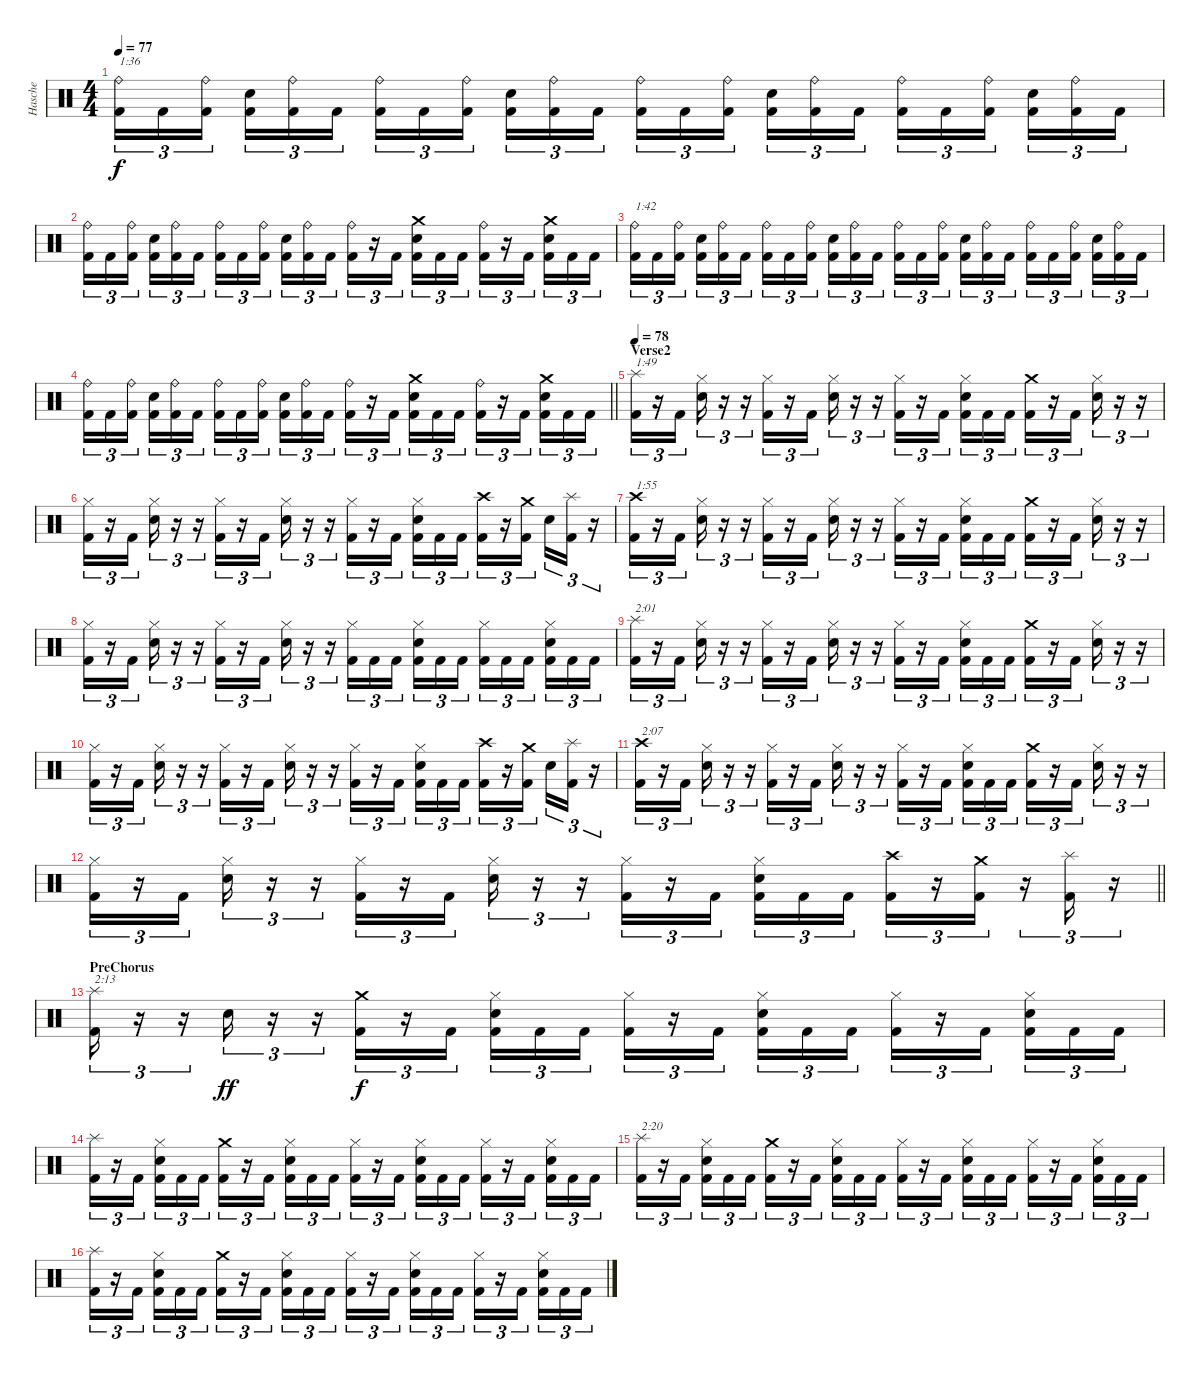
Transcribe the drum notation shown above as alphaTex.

\track ("Hasche" "Hasche") {instrument percussion}
\staff {score}
\articulation defaults
\ts (4 4)
\tempo 77
\clef neutral
\ks c
("Ride (bell)" "Kick (hit) 2").16{tu (3 2) txt "1:36" dy f} "Kick (hit) 2".16{tu (3 2)} ("Ride (bell)" "Kick (hit) 2").16{tu (3 2) beam splitsecondary} ("Snare (hit) 2" "Kick (hit) 2").16{tu (3 2)} ("Ride (bell)" "Kick (hit) 2").16{tu (3 2)} "Kick (hit) 2".16{tu (3 2)} ("Ride (bell)" "Kick (hit) 2").16{tu (3 2)} "Kick (hit) 2".16{tu (3 2)} ("Ride (bell)" "Kick (hit) 2").16{tu (3 2) beam splitsecondary} ("Snare (hit) 2" "Kick (hit) 2").16{tu (3 2)} ("Ride (bell)" "Kick (hit) 2").16{tu (3 2)} "Kick (hit) 2".16{tu (3 2)} ("Ride (bell)" "Kick (hit) 2").16{tu (3 2)} "Kick (hit) 2".16{tu (3 2)} ("Ride (bell)" "Kick (hit) 2").16{tu (3 2) beam splitsecondary} ("Snare (hit) 2" "Kick (hit) 2").16{tu (3 2)} ("Ride (bell)" "Kick (hit) 2").16{tu (3 2)} "Kick (hit) 2".16{tu (3 2)} ("Ride (bell)" "Kick (hit) 2").16{tu (3 2)} "Kick (hit) 2".16{tu (3 2)} ("Ride (bell)" "Kick (hit) 2").16{tu (3 2) beam splitsecondary} ("Snare (hit) 2" "Kick (hit) 2").16{tu (3 2)} ("Ride (bell)" "Kick (hit) 2").16{tu (3 2)} "Kick (hit) 2".16{tu (3 2)} |
("Ride (bell)" "Kick (hit) 2").16{tu (3 2)} "Kick (hit) 2".16{tu (3 2)} ("Ride (bell)" "Kick (hit) 2").16{tu (3 2) beam splitsecondary} ("Snare (hit) 2" "Kick (hit) 2").16{tu (3 2)} ("Ride (bell)" "Kick (hit) 2").16{tu (3 2)} "Kick (hit) 2".16{tu (3 2)} ("Ride (bell)" "Kick (hit) 2").16{tu (3 2)} "Kick (hit) 2".16{tu (3 2)} ("Ride (bell)" "Kick (hit) 2").16{tu (3 2) beam splitsecondary} ("Snare (hit) 2" "Kick (hit) 2").16{tu (3 2)} ("Ride (bell)" "Kick (hit) 2").16{tu (3 2)} "Kick (hit) 2".16{tu (3 2)} ("Ride (bell)" "Kick (hit) 2").16{tu (3 2)} r.16{tu (3 2)} "Kick (hit) 2".16{tu (3 2) beam splitsecondary} ("Crash medium (hit)" "Snare (hit) 2" "Kick (hit) 2").16{tu (3 2)} "Kick (hit) 2".16{tu (3 2)} "Kick (hit) 2".16{tu (3 2)} ("Ride (bell)" "Kick (hit) 2").16{tu (3 2)} r.16{tu (3 2)} "Kick (hit) 2".16{tu (3 2) beam splitsecondary} ("Crash medium (hit)" "Snare (hit) 2" "Kick (hit) 2").16{tu (3 2)} "Kick (hit) 2".16{tu (3 2)} "Kick (hit) 2".16{tu (3 2)} |
("Ride (bell)" "Kick (hit) 2").16{tu (3 2) txt "1:42"} "Kick (hit) 2".16{tu (3 2)} ("Ride (bell)" "Kick (hit) 2").16{tu (3 2) beam splitsecondary} ("Snare (hit) 2" "Kick (hit) 2").16{tu (3 2)} ("Ride (bell)" "Kick (hit) 2").16{tu (3 2)} "Kick (hit) 2".16{tu (3 2)} ("Ride (bell)" "Kick (hit) 2").16{tu (3 2)} "Kick (hit) 2".16{tu (3 2)} ("Ride (bell)" "Kick (hit) 2").16{tu (3 2) beam splitsecondary} ("Snare (hit) 2" "Kick (hit) 2").16{tu (3 2)} ("Ride (bell)" "Kick (hit) 2").16{tu (3 2)} "Kick (hit) 2".16{tu (3 2)} ("Ride (bell)" "Kick (hit) 2").16{tu (3 2)} "Kick (hit) 2".16{tu (3 2)} ("Ride (bell)" "Kick (hit) 2").16{tu (3 2) beam splitsecondary} ("Snare (hit) 2" "Kick (hit) 2").16{tu (3 2)} ("Ride (bell)" "Kick (hit) 2").16{tu (3 2)} "Kick (hit) 2".16{tu (3 2)} ("Ride (bell)" "Kick (hit) 2").16{tu (3 2)} "Kick (hit) 2".16{tu (3 2)} ("Ride (bell)" "Kick (hit) 2").16{tu (3 2) beam splitsecondary} ("Snare (hit) 2" "Kick (hit) 2").16{tu (3 2)} ("Ride (bell)" "Kick (hit) 2").16{tu (3 2)} "Kick (hit) 2".16{tu (3 2)} |
\barLineRight lightlight
("Ride (bell)" "Kick (hit) 2").16{tu (3 2)} "Kick (hit) 2".16{tu (3 2)} ("Ride (bell)" "Kick (hit) 2").16{tu (3 2) beam splitsecondary} ("Snare (hit) 2" "Kick (hit) 2").16{tu (3 2)} ("Ride (bell)" "Kick (hit) 2").16{tu (3 2)} "Kick (hit) 2".16{tu (3 2)} ("Ride (bell)" "Kick (hit) 2").16{tu (3 2)} "Kick (hit) 2".16{tu (3 2)} ("Ride (bell)" "Kick (hit) 2").16{tu (3 2) beam splitsecondary} ("Snare (hit) 2" "Kick (hit) 2").16{tu (3 2)} ("Ride (bell)" "Kick (hit) 2").16{tu (3 2)} "Kick (hit) 2".16{tu (3 2)} ("Ride (bell)" "Kick (hit) 2").16{tu (3 2)} r.16{tu (3 2)} "Kick (hit) 2".16{tu (3 2) beam splitsecondary} ("Crash medium (hit)" "Snare (hit) 2" "Kick (hit) 2").16{tu (3 2)} "Kick (hit) 2".16{tu (3 2)} "Kick (hit) 2".16{tu (3 2)} ("Ride (bell)" "Kick (hit) 2").16{tu (3 2)} r.16{tu (3 2)} "Kick (hit) 2".16{tu (3 2) beam splitsecondary} ("Crash medium (hit)" "Snare (hit) 2" "Kick (hit) 2").16{tu (3 2)} "Kick (hit) 2".16{tu (3 2)} "Kick (hit) 2".16{tu (3 2)} |
\section ("" "Verse2")
\tempo 78
("Splash (hit)" "Kick (hit) 2").16{tu (3 2) txt "1:49"} r.16{tu (3 2)} "Kick (hit) 2".16{tu (3 2)} ("Hi-Hat (closed)" "Snare (hit) 2").16{tu (3 2)} r.16{tu (3 2)} r.16{tu (3 2)} ("Hi-Hat (closed)" "Kick (hit) 2").16{tu (3 2)} r.16{tu (3 2)} "Kick (hit) 2".16{tu (3 2)} ("Hi-Hat (closed)" "Snare (hit) 2").16{tu (3 2)} r.16{tu (3 2)} r.16{tu (3 2)} ("Hi-Hat (closed)" "Kick (hit) 2").16{tu (3 2)} r.16{tu (3 2)} "Kick (hit) 2".16{tu (3 2) beam splitsecondary} ("Hi-Hat (closed)" "Snare (hit) 2" "Kick (hit) 2").16{tu (3 2)} "Kick (hit) 2".16{tu (3 2)} "Kick (hit) 2".16{tu (3 2)} ("Crash medium (hit)" "Kick (hit) 2").16{tu (3 2)} r.16{tu (3 2)} "Kick (hit) 2".16{tu (3 2)} ("Hi-Hat (closed)" "Snare (hit) 2").16{tu (3 2)} r.16{tu (3 2)} r.16{tu (3 2)} |
("Hi-Hat (closed)" "Kick (hit) 2").16{tu (3 2)} r.16{tu (3 2)} "Kick (hit) 2".16{tu (3 2)} ("Hi-Hat (closed)" "Snare (hit) 2").16{tu (3 2)} r.16{tu (3 2)} r.16{tu (3 2)} ("Hi-Hat (closed)" "Kick (hit) 2").16{tu (3 2)} r.16{tu (3 2)} "Kick (hit) 2".16{tu (3 2)} ("Hi-Hat (closed)" "Snare (hit) 2").16{tu (3 2)} r.16{tu (3 2)} r.16{tu (3 2)} ("Hi-Hat (closed)" "Kick (hit) 2").16{tu (3 2)} r.16{tu (3 2)} "Kick (hit) 2".16{tu (3 2) beam splitsecondary} ("Hi-Hat (closed)" "Snare (hit) 2" "Kick (hit) 2").16{tu (3 2)} "Kick (hit) 2".16{tu (3 2)} "Kick (hit) 2".16{tu (3 2)} ("Crash high (hit)" "Kick (hit) 2").16{tu (3 2)} r.16{tu (3 2)} ("Crash medium (hit)" "Kick (hit) 2").16{tu (3 2) beam splitsecondary} "Snare (hit) 2".16{tu (3 2)} ("Splash (hit)" "Kick (hit) 2").16{tu (3 2)} r.16{tu (3 2)} |
("Crash high (hit)" "Kick (hit) 2").16{tu (3 2) txt "1:55"} r.16{tu (3 2)} "Kick (hit) 2".16{tu (3 2)} ("Hi-Hat (closed)" "Snare (hit) 2").16{tu (3 2)} r.16{tu (3 2)} r.16{tu (3 2)} ("Hi-Hat (closed)" "Kick (hit) 2").16{tu (3 2)} r.16{tu (3 2)} "Kick (hit) 2".16{tu (3 2)} ("Hi-Hat (closed)" "Snare (hit) 2").16{tu (3 2)} r.16{tu (3 2)} r.16{tu (3 2)} ("Hi-Hat (closed)" "Kick (hit) 2").16{tu (3 2)} r.16{tu (3 2)} "Kick (hit) 2".16{tu (3 2) beam splitsecondary} ("Hi-Hat (closed)" "Snare (hit) 2" "Kick (hit) 2").16{tu (3 2)} "Kick (hit) 2".16{tu (3 2)} "Kick (hit) 2".16{tu (3 2)} ("Crash medium (hit)" "Kick (hit) 2").16{tu (3 2)} r.16{tu (3 2)} "Kick (hit) 2".16{tu (3 2)} ("Hi-Hat (closed)" "Snare (hit) 2").16{tu (3 2)} r.16{tu (3 2)} r.16{tu (3 2)} |
("Hi-Hat (closed)" "Kick (hit) 2").16{tu (3 2)} r.16{tu (3 2)} "Kick (hit) 2".16{tu (3 2)} ("Hi-Hat (closed)" "Snare (hit) 2").16{tu (3 2)} r.16{tu (3 2)} r.16{tu (3 2)} ("Hi-Hat (closed)" "Kick (hit) 2").16{tu (3 2)} r.16{tu (3 2)} "Kick (hit) 2".16{tu (3 2)} ("Hi-Hat (closed)" "Snare (hit) 2").16{tu (3 2)} r.16{tu (3 2)} r.16{tu (3 2)} ("Hi-Hat (closed)" "Kick (hit) 2").16{tu (3 2)} "Kick (hit) 2".16{tu (3 2)} "Kick (hit) 2".16{tu (3 2) beam splitsecondary} ("Hi-Hat (closed)" "Snare (hit) 2" "Kick (hit) 2").16{tu (3 2)} "Kick (hit) 2".16{tu (3 2)} "Kick (hit) 2".16{tu (3 2)} ("Hi-Hat (closed)" "Kick (hit) 2").16{tu (3 2)} "Kick (hit) 2".16{tu (3 2)} "Kick (hit) 2".16{tu (3 2) beam splitsecondary} ("Hi-Hat (closed)" "Snare (hit) 2" "Kick (hit) 2").16{tu (3 2)} "Kick (hit) 2".16{tu (3 2)} "Kick (hit) 2".16{tu (3 2)} |
("Splash (hit)" "Kick (hit) 2").16{tu (3 2) txt "2:01"} r.16{tu (3 2)} "Kick (hit) 2".16{tu (3 2)} ("Hi-Hat (closed)" "Snare (hit) 2").16{tu (3 2)} r.16{tu (3 2)} r.16{tu (3 2)} ("Hi-Hat (closed)" "Kick (hit) 2").16{tu (3 2)} r.16{tu (3 2)} "Kick (hit) 2".16{tu (3 2)} ("Hi-Hat (closed)" "Snare (hit) 2").16{tu (3 2)} r.16{tu (3 2)} r.16{tu (3 2)} ("Hi-Hat (closed)" "Kick (hit) 2").16{tu (3 2)} r.16{tu (3 2)} "Kick (hit) 2".16{tu (3 2) beam splitsecondary} ("Hi-Hat (closed)" "Snare (hit) 2" "Kick (hit) 2").16{tu (3 2)} "Kick (hit) 2".16{tu (3 2)} "Kick (hit) 2".16{tu (3 2)} ("Crash medium (hit)" "Kick (hit) 2").16{tu (3 2)} r.16{tu (3 2)} "Kick (hit) 2".16{tu (3 2)} ("Hi-Hat (closed)" "Snare (hit) 2").16{tu (3 2)} r.16{tu (3 2)} r.16{tu (3 2)} |
("Hi-Hat (closed)" "Kick (hit) 2").16{tu (3 2)} r.16{tu (3 2)} "Kick (hit) 2".16{tu (3 2)} ("Hi-Hat (closed)" "Snare (hit) 2").16{tu (3 2)} r.16{tu (3 2)} r.16{tu (3 2)} ("Hi-Hat (closed)" "Kick (hit) 2").16{tu (3 2)} r.16{tu (3 2)} "Kick (hit) 2".16{tu (3 2)} ("Hi-Hat (closed)" "Snare (hit) 2").16{tu (3 2)} r.16{tu (3 2)} r.16{tu (3 2)} ("Hi-Hat (closed)" "Kick (hit) 2").16{tu (3 2)} r.16{tu (3 2)} "Kick (hit) 2".16{tu (3 2) beam splitsecondary} ("Hi-Hat (closed)" "Snare (hit) 2" "Kick (hit) 2").16{tu (3 2)} "Kick (hit) 2".16{tu (3 2)} "Kick (hit) 2".16{tu (3 2)} ("Crash high (hit)" "Kick (hit) 2").16{tu (3 2)} r.16{tu (3 2)} ("Crash medium (hit)" "Kick (hit) 2").16{tu (3 2) beam splitsecondary} "Snare (hit) 2".16{tu (3 2)} ("Splash (hit)" "Kick (hit) 2").16{tu (3 2)} r.16{tu (3 2)} |
("Crash high (hit)" "Kick (hit) 2").16{tu (3 2) txt "2:07"} r.16{tu (3 2)} "Kick (hit) 2".16{tu (3 2)} ("Hi-Hat (closed)" "Snare (hit) 2").16{tu (3 2)} r.16{tu (3 2)} r.16{tu (3 2)} ("Hi-Hat (closed)" "Kick (hit) 2").16{tu (3 2)} r.16{tu (3 2)} "Kick (hit) 2".16{tu (3 2)} ("Hi-Hat (closed)" "Snare (hit) 2").16{tu (3 2)} r.16{tu (3 2)} r.16{tu (3 2)} ("Hi-Hat (closed)" "Kick (hit) 2").16{tu (3 2)} r.16{tu (3 2)} "Kick (hit) 2".16{tu (3 2) beam splitsecondary} ("Hi-Hat (closed)" "Snare (hit) 2" "Kick (hit) 2").16{tu (3 2)} "Kick (hit) 2".16{tu (3 2)} "Kick (hit) 2".16{tu (3 2)} ("Crash medium (hit)" "Kick (hit) 2").16{tu (3 2)} r.16{tu (3 2)} "Kick (hit) 2".16{tu (3 2)} ("Hi-Hat (closed)" "Snare (hit) 2").16{tu (3 2)} r.16{tu (3 2)} r.16{tu (3 2)} |
\barLineRight lightlight
("Hi-Hat (closed)" "Kick (hit) 2").16{tu (3 2)} r.16{tu (3 2)} "Kick (hit) 2".16{tu (3 2)} ("Hi-Hat (closed)" "Snare (hit) 2").16{tu (3 2)} r.16{tu (3 2)} r.16{tu (3 2)} ("Hi-Hat (closed)" "Kick (hit) 2").16{tu (3 2)} r.16{tu (3 2)} "Kick (hit) 2".16{tu (3 2)} ("Hi-Hat (closed)" "Snare (hit) 2").16{tu (3 2)} r.16{tu (3 2)} r.16{tu (3 2)} ("Hi-Hat (closed)" "Kick (hit) 2").16{tu (3 2)} r.16{tu (3 2)} "Kick (hit) 2".16{tu (3 2) beam splitsecondary} ("Hi-Hat (closed)" "Snare (hit) 2" "Kick (hit) 2").16{tu (3 2)} "Kick (hit) 2".16{tu (3 2)} "Kick (hit) 2".16{tu (3 2)} ("Crash high (hit)" "Kick (hit) 2").16{tu (3 2)} r.16{tu (3 2)} ("Crash medium (hit)" "Kick (hit) 2").16{tu (3 2)} r.16{tu (3 2)} ("Splash (hit)" "Kick (hit) 2").16{tu (3 2)} r.16{tu (3 2)} |
\section ("" "PreChorus")
("Splash (hit)" "Kick (hit) 2").16{tu (3 2) txt "2:13"} r.16{tu (3 2)} r.16{tu (3 2)} "Snare (hit) 2".16{tu (3 2) dy ff} r.16{tu (3 2)} r.16{tu (3 2)} ("Crash medium (hit)" "Kick (hit) 2").16{tu (3 2) dy f} r.16{tu (3 2)} "Kick (hit) 2".16{tu (3 2) beam splitsecondary} ("Hi-Hat (closed)" "Snare (hit) 2" "Kick (hit) 2").16{tu (3 2)} "Kick (hit) 2".16{tu (3 2)} "Kick (hit) 2".16{tu (3 2)} ("Hi-Hat (closed)" "Kick (hit) 2").16{tu (3 2)} r.16{tu (3 2)} "Kick (hit) 2".16{tu (3 2) beam splitsecondary} ("Hi-Hat (closed)" "Snare (hit) 2" "Kick (hit) 2").16{tu (3 2)} "Kick (hit) 2".16{tu (3 2)} "Kick (hit) 2".16{tu (3 2)} ("Hi-Hat (closed)" "Kick (hit) 2").16{tu (3 2)} r.16{tu (3 2)} "Kick (hit) 2".16{tu (3 2) beam splitsecondary} ("Hi-Hat (closed)" "Snare (hit) 2" "Kick (hit) 2").16{tu (3 2)} "Kick (hit) 2".16{tu (3 2)} "Kick (hit) 2".16{tu (3 2)} |
("Splash (hit)" "Kick (hit) 2").16{tu (3 2)} r.16{tu (3 2)} "Kick (hit) 2".16{tu (3 2) beam splitsecondary} ("Hi-Hat (closed)" "Snare (hit) 2" "Kick (hit) 2").16{tu (3 2)} "Kick (hit) 2".16{tu (3 2)} "Kick (hit) 2".16{tu (3 2)} ("Crash medium (hit)" "Kick (hit) 2").16{tu (3 2)} r.16{tu (3 2)} "Kick (hit) 2".16{tu (3 2) beam splitsecondary} ("Hi-Hat (closed)" "Snare (hit) 2" "Kick (hit) 2").16{tu (3 2)} "Kick (hit) 2".16{tu (3 2)} "Kick (hit) 2".16{tu (3 2)} ("Hi-Hat (closed)" "Kick (hit) 2").16{tu (3 2)} r.16{tu (3 2)} "Kick (hit) 2".16{tu (3 2) beam splitsecondary} ("Hi-Hat (closed)" "Snare (hit) 2" "Kick (hit) 2").16{tu (3 2)} "Kick (hit) 2".16{tu (3 2)} "Kick (hit) 2".16{tu (3 2)} ("Hi-Hat (closed)" "Kick (hit) 2").16{tu (3 2)} r.16{tu (3 2)} "Kick (hit) 2".16{tu (3 2) beam splitsecondary} ("Hi-Hat (closed)" "Snare (hit) 2" "Kick (hit) 2").16{tu (3 2)} "Kick (hit) 2".16{tu (3 2)} "Kick (hit) 2".16{tu (3 2)} |
("Splash (hit)" "Kick (hit) 2").16{tu (3 2) txt "2:20"} r.16{tu (3 2)} "Kick (hit) 2".16{tu (3 2) beam splitsecondary} ("Hi-Hat (closed)" "Snare (hit) 2" "Kick (hit) 2").16{tu (3 2)} "Kick (hit) 2".16{tu (3 2)} "Kick (hit) 2".16{tu (3 2)} ("Crash medium (hit)" "Kick (hit) 2").16{tu (3 2)} r.16{tu (3 2)} "Kick (hit) 2".16{tu (3 2) beam splitsecondary} ("Hi-Hat (closed)" "Snare (hit) 2" "Kick (hit) 2").16{tu (3 2)} "Kick (hit) 2".16{tu (3 2)} "Kick (hit) 2".16{tu (3 2)} ("Hi-Hat (closed)" "Kick (hit) 2").16{tu (3 2)} r.16{tu (3 2)} "Kick (hit) 2".16{tu (3 2) beam splitsecondary} ("Hi-Hat (closed)" "Snare (hit) 2" "Kick (hit) 2").16{tu (3 2)} "Kick (hit) 2".16{tu (3 2)} "Kick (hit) 2".16{tu (3 2)} ("Hi-Hat (closed)" "Kick (hit) 2").16{tu (3 2)} r.16{tu (3 2)} "Kick (hit) 2".16{tu (3 2) beam splitsecondary} ("Hi-Hat (closed)" "Snare (hit) 2" "Kick (hit) 2").16{tu (3 2)} "Kick (hit) 2".16{tu (3 2)} "Kick (hit) 2".16{tu (3 2)} |
("Splash (hit)" "Kick (hit) 2").16{tu (3 2)} r.16{tu (3 2)} "Kick (hit) 2".16{tu (3 2) beam splitsecondary} ("Hi-Hat (closed)" "Snare (hit) 2" "Kick (hit) 2").16{tu (3 2)} "Kick (hit) 2".16{tu (3 2)} "Kick (hit) 2".16{tu (3 2)} ("Crash medium (hit)" "Kick (hit) 2").16{tu (3 2)} r.16{tu (3 2)} "Kick (hit) 2".16{tu (3 2) beam splitsecondary} ("Hi-Hat (closed)" "Snare (hit) 2" "Kick (hit) 2").16{tu (3 2)} "Kick (hit) 2".16{tu (3 2)} "Kick (hit) 2".16{tu (3 2)} ("Hi-Hat (closed)" "Kick (hit) 2").16{tu (3 2)} r.16{tu (3 2)} "Kick (hit) 2".16{tu (3 2) beam splitsecondary} ("Hi-Hat (closed)" "Snare (hit) 2" "Kick (hit) 2").16{tu (3 2)} "Kick (hit) 2".16{tu (3 2)} "Kick (hit) 2".16{tu (3 2)} ("Hi-Hat (closed)" "Kick (hit) 2").16{tu (3 2)} r.16{tu (3 2)} "Kick (hit) 2".16{tu (3 2) beam splitsecondary} ("Hi-Hat (closed)" "Snare (hit) 2" "Kick (hit) 2").16{tu (3 2)} "Kick (hit) 2".16{tu (3 2)} "Kick (hit) 2".16{tu (3 2)}
